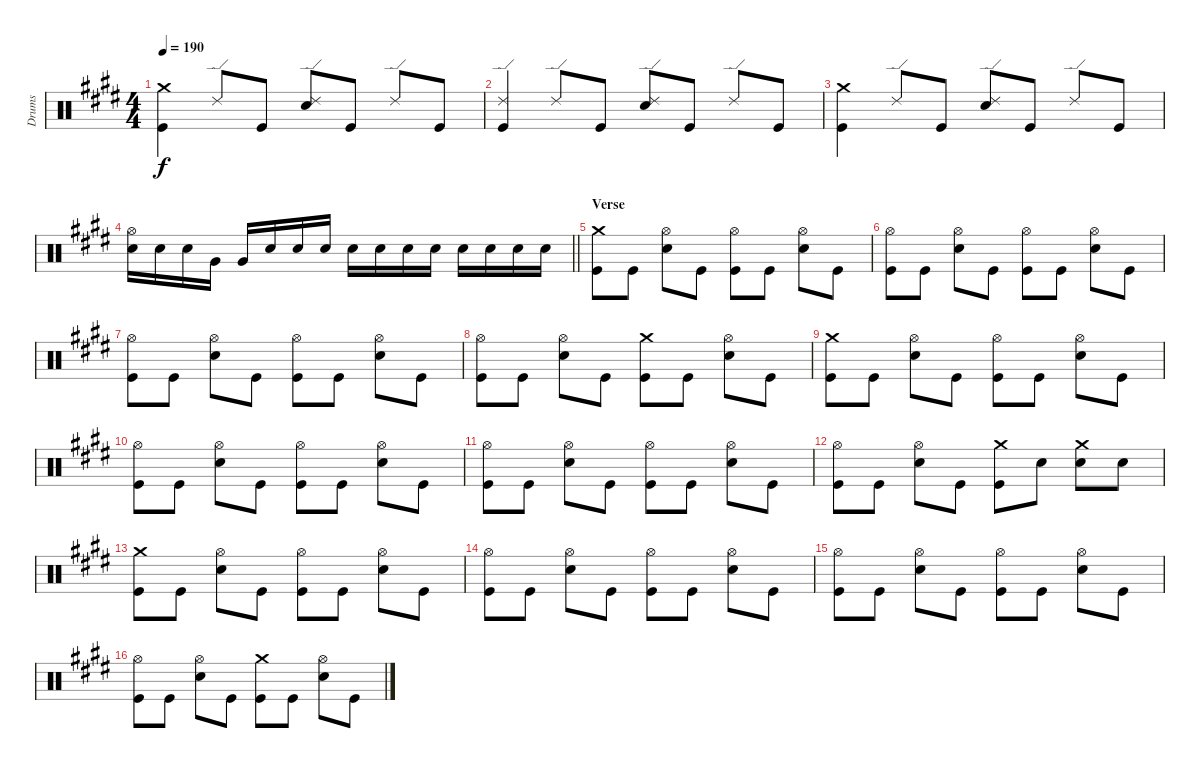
\track ("Drums" "Drums") {instrument percussion}
\staff {score}
\articulation defaults
\ts (4 4)
\tempo 190
\clef neutral
\ks e
("Kick (hit)" "Crash medium (hit)").4{dy f} "Ride (edge) 2".8 "Kick (hit)".8 ("Snare (hit) 2" "Ride (edge) 2").8 "Kick (hit)".8 "Ride (edge) 2".8 "Kick (hit)".8 |
("Kick (hit)" "Ride (edge) 2").4 "Ride (edge) 2".8 "Kick (hit)".8 ("Snare (hit) 2" "Ride (edge) 2").8 "Kick (hit)".8 "Ride (edge) 2".8 "Kick (hit)".8 |
("Kick (hit)" "Crash medium (hit)").4 "Ride (edge) 2".8 "Kick (hit)".8 ("Snare (hit) 2" "Ride (edge) 2").8 "Kick (hit)".8 "Ride (edge) 2".8 "Kick (hit)".8 |
\barLineRight lightlight
("Snare (hit) 2" "Hi-Hat (open)").16 "Snare (hit) 2".16 "Snare (hit) 2".16 "Very Low Tom (hit)".16 "Very Low Tom (hit)".16 "Snare (hit) 2".16 "Snare (hit) 2".16 "Snare (hit) 2".16 "Snare (hit) 2".16 "Snare (hit) 2".16 "Snare (hit) 2".16 "Snare (hit) 2".16 "Snare (hit) 2".16 "Snare (hit) 2".16 "Snare (hit) 2".16 "Snare (hit) 2".16 |
\section ("" "Verse")
("Kick (hit)" "Crash medium (hit)").8 "Kick (hit)".8 ("Snare (hit) 2" "Hi-Hat (open)").8 "Kick (hit)".8 ("Kick (hit)" "Hi-Hat (open)").8 "Kick (hit)".8 ("Snare (hit) 2" "Hi-Hat (open)").8 "Kick (hit)".8 |
("Kick (hit)" "Hi-Hat (open)").8 "Kick (hit)".8 ("Snare (hit) 2" "Hi-Hat (open)").8 "Kick (hit)".8 ("Kick (hit)" "Hi-Hat (open)").8 "Kick (hit)".8 ("Snare (hit) 2" "Hi-Hat (open)").8 "Kick (hit)".8 |
("Kick (hit)" "Hi-Hat (open)").8 "Kick (hit)".8 ("Snare (hit) 2" "Hi-Hat (open)").8 "Kick (hit)".8 ("Kick (hit)" "Hi-Hat (open)").8 "Kick (hit)".8 ("Snare (hit) 2" "Hi-Hat (open)").8 "Kick (hit)".8 |
("Kick (hit)" "Hi-Hat (open)").8 "Kick (hit)".8 ("Snare (hit) 2" "Hi-Hat (open)").8 "Kick (hit)".8 ("Kick (hit)" "Crash medium (hit)").8 "Kick (hit)".8 ("Snare (hit) 2" "Hi-Hat (open)").8 "Kick (hit)".8 |
("Kick (hit)" "Crash medium (hit)").8 "Kick (hit)".8 ("Snare (hit) 2" "Hi-Hat (open)").8 "Kick (hit)".8 ("Kick (hit)" "Hi-Hat (open)").8 "Kick (hit)".8 ("Snare (hit) 2" "Hi-Hat (open)").8 "Kick (hit)".8 |
("Kick (hit)" "Hi-Hat (open)").8 "Kick (hit)".8 ("Snare (hit) 2" "Hi-Hat (open)").8 "Kick (hit)".8 ("Kick (hit)" "Hi-Hat (open)").8 "Kick (hit)".8 ("Snare (hit) 2" "Hi-Hat (open)").8 "Kick (hit)".8 |
("Kick (hit)" "Hi-Hat (open)").8 "Kick (hit)".8 ("Snare (hit) 2" "Hi-Hat (open)").8 "Kick (hit)".8 ("Kick (hit)" "Hi-Hat (open)").8 "Kick (hit)".8 ("Snare (hit) 2" "Hi-Hat (open)").8 "Kick (hit)".8 |
("Kick (hit)" "Hi-Hat (open)").8 "Kick (hit)".8 ("Snare (hit) 2" "Hi-Hat (open)").8 "Kick (hit)".8 ("Kick (hit)" "Crash medium (hit)").8 "Snare (hit) 2".8 ("Snare (hit) 2" "Crash medium (hit)").8 "Snare (hit) 2".8 |
("Kick (hit)" "Crash medium (hit)").8 "Kick (hit)".8 ("Snare (hit) 2" "Hi-Hat (open)").8 "Kick (hit)".8 ("Kick (hit)" "Hi-Hat (open)").8 "Kick (hit)".8 ("Snare (hit) 2" "Hi-Hat (open)").8 "Kick (hit)".8 |
("Kick (hit)" "Hi-Hat (open)").8 "Kick (hit)".8 ("Snare (hit) 2" "Hi-Hat (open)").8 "Kick (hit)".8 ("Kick (hit)" "Hi-Hat (open)").8 "Kick (hit)".8 ("Snare (hit) 2" "Hi-Hat (open)").8 "Kick (hit)".8 |
("Kick (hit)" "Hi-Hat (open)").8 "Kick (hit)".8 ("Snare (hit) 2" "Hi-Hat (open)").8 "Kick (hit)".8 ("Kick (hit)" "Hi-Hat (open)").8 "Kick (hit)".8 ("Snare (hit) 2" "Hi-Hat (open)").8 "Kick (hit)".8 |
("Kick (hit)" "Hi-Hat (open)").8 "Kick (hit)".8 ("Snare (hit) 2" "Hi-Hat (open)").8 "Kick (hit)".8 ("Kick (hit)" "Crash medium (hit)").8 "Kick (hit)".8 ("Snare (hit) 2" "Hi-Hat (open)").8 "Kick (hit)".8
